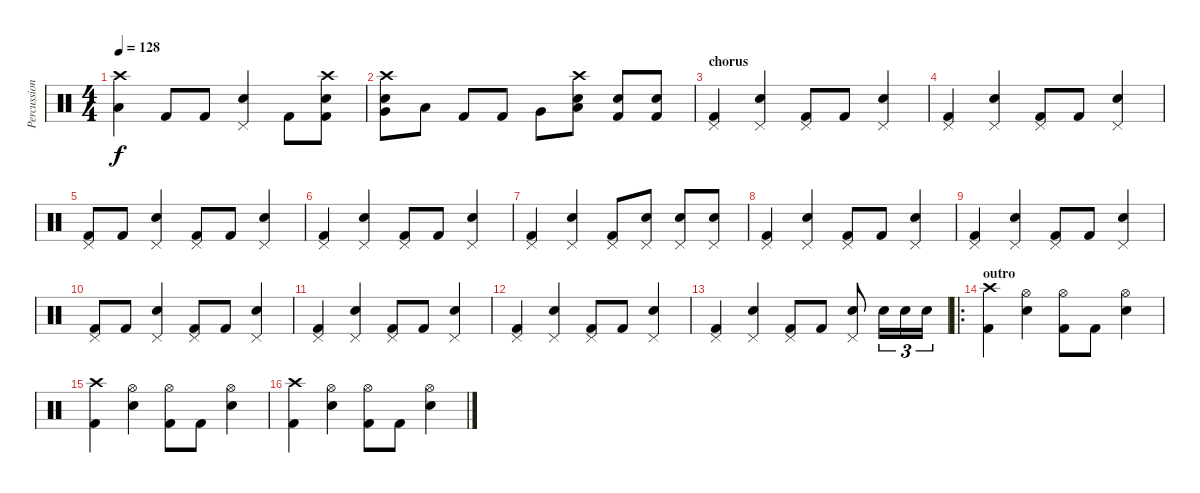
\track ("Percussion" "Percussion") {instrument percussion}
\staff {score}
\articulation defaults
\ts (4 4)
\tempo 128
\clef neutral
\ks c
("Crash high (hit)" "Low Tom (hit)").4{dy f} "Kick (hit) 2".8 "Kick (hit) 2".8 ("Pedal Hi-Hat (hit)" "Electric Snare (hit)").4 "Kick (hit) 2".8 ("Crash high (hit)" "Electric Snare (hit)" "Kick (hit) 2").8 |
("Crash high (hit)" "Electric Snare (hit)" "Very Low Tom (hit)").8 "Low Tom (hit)".8 "Kick (hit) 2".8 "Kick (hit) 2".8 "Very Low Tom (hit)".8 ("Crash high (hit)" "Electric Snare (hit)" "Low Tom (hit)").8 ("Electric Snare (hit)" "Kick (hit) 2").8 ("Electric Snare (hit)" "Kick (hit) 2").8 |
\section ("" "chorus")
("Pedal Hi-Hat (hit)" "Kick (hit) 2").4 ("Pedal Hi-Hat (hit)" "Electric Snare (hit)").4 ("Pedal Hi-Hat (hit)" "Kick (hit) 2").8 "Kick (hit) 2".8 ("Pedal Hi-Hat (hit)" "Electric Snare (hit)").4 |
("Pedal Hi-Hat (hit)" "Kick (hit) 2").4 ("Pedal Hi-Hat (hit)" "Electric Snare (hit)").4 ("Pedal Hi-Hat (hit)" "Kick (hit) 2").8 "Kick (hit) 2".8 ("Pedal Hi-Hat (hit)" "Electric Snare (hit)").4 |
("Pedal Hi-Hat (hit)" "Kick (hit) 2").8 "Kick (hit) 2".8 ("Pedal Hi-Hat (hit)" "Electric Snare (hit)").4 ("Pedal Hi-Hat (hit)" "Kick (hit) 2").8 "Kick (hit) 2".8 ("Pedal Hi-Hat (hit)" "Electric Snare (hit)").4 |
("Pedal Hi-Hat (hit)" "Kick (hit) 2").4 ("Pedal Hi-Hat (hit)" "Electric Snare (hit)").4 ("Pedal Hi-Hat (hit)" "Kick (hit) 2").8 "Kick (hit) 2".8 ("Pedal Hi-Hat (hit)" "Electric Snare (hit)").4 |
("Pedal Hi-Hat (hit)" "Kick (hit) 2").4 ("Pedal Hi-Hat (hit)" "Electric Snare (hit)").4 ("Pedal Hi-Hat (hit)" "Kick (hit) 2").8 ("Pedal Hi-Hat (hit)" "Electric Snare (hit)").8 ("Pedal Hi-Hat (hit)" "Electric Snare (hit)").8 ("Pedal Hi-Hat (hit)" "Electric Snare (hit)").8 |
("Pedal Hi-Hat (hit)" "Kick (hit) 2").4 ("Pedal Hi-Hat (hit)" "Electric Snare (hit)").4 ("Pedal Hi-Hat (hit)" "Kick (hit) 2").8 "Kick (hit) 2".8 ("Pedal Hi-Hat (hit)" "Electric Snare (hit)").4 |
("Pedal Hi-Hat (hit)" "Kick (hit) 2").4 ("Pedal Hi-Hat (hit)" "Electric Snare (hit)").4 ("Pedal Hi-Hat (hit)" "Kick (hit) 2").8 "Kick (hit) 2".8 ("Pedal Hi-Hat (hit)" "Electric Snare (hit)").4 |
("Pedal Hi-Hat (hit)" "Kick (hit) 2").8 "Kick (hit) 2".8 ("Pedal Hi-Hat (hit)" "Electric Snare (hit)").4 ("Pedal Hi-Hat (hit)" "Kick (hit) 2").8 "Kick (hit) 2".8 ("Pedal Hi-Hat (hit)" "Electric Snare (hit)").4 |
("Pedal Hi-Hat (hit)" "Kick (hit) 2").4 ("Pedal Hi-Hat (hit)" "Electric Snare (hit)").4 ("Pedal Hi-Hat (hit)" "Kick (hit) 2").8 "Kick (hit) 2".8 ("Pedal Hi-Hat (hit)" "Electric Snare (hit)").4 |
("Pedal Hi-Hat (hit)" "Kick (hit) 2").4 ("Pedal Hi-Hat (hit)" "Electric Snare (hit)").4 ("Pedal Hi-Hat (hit)" "Kick (hit) 2").8 "Kick (hit) 2".8 ("Pedal Hi-Hat (hit)" "Electric Snare (hit)").4 |
("Pedal Hi-Hat (hit)" "Kick (hit) 2").4 ("Pedal Hi-Hat (hit)" "Electric Snare (hit)").4 ("Pedal Hi-Hat (hit)" "Kick (hit) 2").8 "Kick (hit) 2".8 ("Pedal Hi-Hat (hit)" "Electric Snare (hit)").8 "Electric Snare (hit)".16{tu (3 2)} "Electric Snare (hit)".16{tu (3 2)} "Electric Snare (hit)".16{tu (3 2)} |
\ro
\section ("" "outro")
("Crash high (hit)" "Kick (hit) 2").4 ("Hi-Hat (open)" "Electric Snare (hit)").4 ("Hi-Hat (open)" "Kick (hit) 2").8 "Kick (hit) 2".8 ("Hi-Hat (open)" "Electric Snare (hit)").4 |
("Crash high (hit)" "Kick (hit) 2").4 ("Hi-Hat (open)" "Electric Snare (hit)").4 ("Hi-Hat (open)" "Kick (hit) 2").8 "Kick (hit) 2".8 ("Hi-Hat (open)" "Electric Snare (hit)").4 |
("Crash high (hit)" "Kick (hit) 2").4 ("Hi-Hat (open)" "Electric Snare (hit)").4 ("Hi-Hat (open)" "Kick (hit) 2").8 "Kick (hit) 2".8 ("Hi-Hat (open)" "Electric Snare (hit)").4
